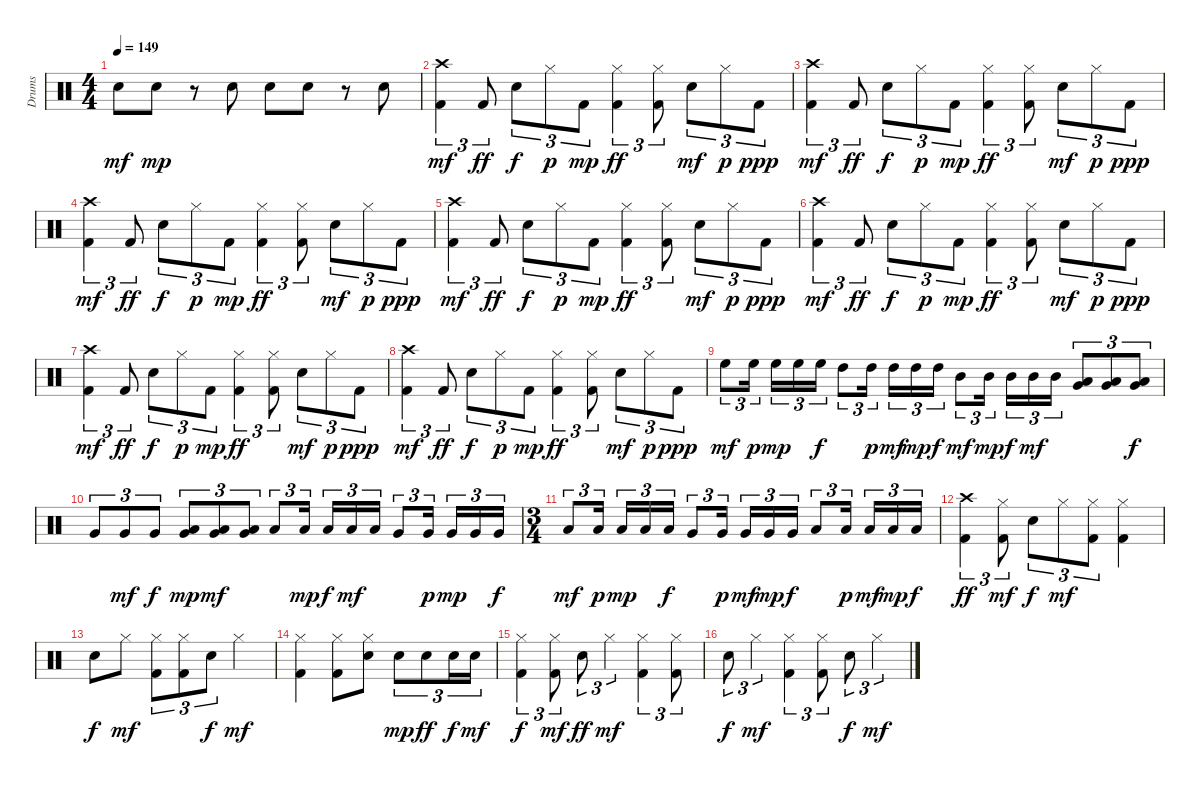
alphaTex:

\track ("Drums" "Drums") {instrument percussion}
\staff {score}
\articulation defaults
\ts (4 4)
\tempo 149
\clef neutral
\ks c "Electric Snare (hit)".8{dy mf} "Electric Snare (hit)".8{dy mp}
r.8 "Electric Snare (hit)".8 "Electric Snare (hit)".8 "Electric Snare (hit)".8 r.8 "Electric Snare (hit)".8 |
("Kick (hit) 2" "Crash high (hit)").4{tu (3 2) dy mf} "Kick (hit) 2".8{tu (3 2) dy ff} "Snare (hit) 2".8{tu (3 2) dy f} "Hi-Hat (closed)".8{tu (3 2) dy p} "Kick (hit) 2".8{tu (3 2) dy mp} ("Kick (hit) 2" "Hi-Hat (closed)").4{tu (3 2) dy ff} ("Kick (hit) 2" "Hi-Hat (closed)").8{tu (3 2)} "Snare (hit) 2".8{tu (3 2) dy mf} "Hi-Hat (closed)".8{tu (3 2) dy p} "Kick (hit) 2".8{tu (3 2) dy ppp} |
("Kick (hit) 2" "Crash high (hit)").4{tu (3 2) dy mf} "Kick (hit) 2".8{tu (3 2) dy ff} "Snare (hit) 2".8{tu (3 2) dy f} "Hi-Hat (closed)".8{tu (3 2) dy p} "Kick (hit) 2".8{tu (3 2) dy mp} ("Kick (hit) 2" "Hi-Hat (closed)").4{tu (3 2) dy ff} ("Kick (hit) 2" "Hi-Hat (closed)").8{tu (3 2)} "Snare (hit) 2".8{tu (3 2) dy mf} "Hi-Hat (closed)".8{tu (3 2) dy p} "Kick (hit) 2".8{tu (3 2) dy ppp} |
("Kick (hit) 2" "Crash high (hit)").4{tu (3 2) dy mf} "Kick (hit) 2".8{tu (3 2) dy ff} "Snare (hit) 2".8{tu (3 2) dy f} "Hi-Hat (closed)".8{tu (3 2) dy p} "Kick (hit) 2".8{tu (3 2) dy mp} ("Kick (hit) 2" "Hi-Hat (closed)").4{tu (3 2) dy ff} ("Kick (hit) 2" "Hi-Hat (closed)").8{tu (3 2)} "Snare (hit) 2".8{tu (3 2) dy mf} "Hi-Hat (closed)".8{tu (3 2) dy p} "Kick (hit) 2".8{tu (3 2) dy ppp} |
("Kick (hit) 2" "Crash high (hit)").4{tu (3 2) dy mf} "Kick (hit) 2".8{tu (3 2) dy ff} "Snare (hit) 2".8{tu (3 2) dy f} "Hi-Hat (closed)".8{tu (3 2) dy p} "Kick (hit) 2".8{tu (3 2) dy mp} ("Kick (hit) 2" "Hi-Hat (closed)").4{tu (3 2) dy ff} ("Kick (hit) 2" "Hi-Hat (closed)").8{tu (3 2)} "Snare (hit) 2".8{tu (3 2) dy mf} "Hi-Hat (closed)".8{tu (3 2) dy p} "Kick (hit) 2".8{tu (3 2) dy ppp} |
("Kick (hit) 2" "Crash high (hit)").4{tu (3 2) dy mf} "Kick (hit) 2".8{tu (3 2) dy ff} "Snare (hit) 2".8{tu (3 2) dy f} "Hi-Hat (closed)".8{tu (3 2) dy p} "Kick (hit) 2".8{tu (3 2) dy mp} ("Kick (hit) 2" "Hi-Hat (closed)").4{tu (3 2) dy ff} ("Kick (hit) 2" "Hi-Hat (closed)").8{tu (3 2)} "Snare (hit) 2".8{tu (3 2) dy mf} "Hi-Hat (closed)".8{tu (3 2) dy p} "Kick (hit) 2".8{tu (3 2) dy ppp} |
("Kick (hit) 2" "Crash high (hit)").4{tu (3 2) dy mf} "Kick (hit) 2".8{tu (3 2) dy ff} "Snare (hit) 2".8{tu (3 2) dy f} "Hi-Hat (closed)".8{tu (3 2) dy p} "Kick (hit) 2".8{tu (3 2) dy mp} ("Kick (hit) 2" "Hi-Hat (closed)").4{tu (3 2) dy ff} ("Kick (hit) 2" "Hi-Hat (closed)").8{tu (3 2)} "Snare (hit) 2".8{tu (3 2) dy mf} "Hi-Hat (closed)".8{tu (3 2) dy p} "Kick (hit) 2".8{tu (3 2) dy ppp} |
("Kick (hit) 2" "Crash high (hit)").4{tu (3 2) dy mf} "Kick (hit) 2".8{tu (3 2) dy ff} "Snare (hit) 2".8{tu (3 2) dy f} "Hi-Hat (closed)".8{tu (3 2) dy p} "Kick (hit) 2".8{tu (3 2) dy mp} ("Kick (hit) 2" "Hi-Hat (closed)").4{tu (3 2) dy ff} ("Kick (hit) 2" "Hi-Hat (closed)").8{tu (3 2)} "Snare (hit) 2".8{tu (3 2) dy mf} "Hi-Hat (closed)".8{tu (3 2) dy p} "Kick (hit) 2".8{tu (3 2) dy ppp} |
"High Floor Tom (hit)".8{tu (3 2) dy mf} "High Floor Tom (hit)".16{tu (3 2) dy p} "High Floor Tom (hit)".16{tu (3 2) dy mp} "High Floor Tom (hit)".16{tu (3 2)} "High Floor Tom (hit)".16{tu (3 2) dy f} "High Tom (hit)".8{tu (3 2)} "High Tom (hit)".16{tu (3 2) dy p} "High Tom (hit)".16{tu (3 2) dy mf} "High Tom (hit)".16{tu (3 2) dy mp} "High Tom (hit)".16{tu (3 2) dy f} "Mid Tom (hit)".8{tu (3 2) dy mf} "Mid Tom (hit)".16{tu (3 2) dy mp} "Mid Tom (hit)".16{tu (3 2) dy f} "Mid Tom (hit)".16{tu (3 2) dy mf} "Mid Tom (hit)".16{tu (3 2)} ("Low Floor Tom (hit)" "Very Low Tom (hit)").8{tu (3 2)} ("Low Floor Tom (hit)" "Very Low Tom (hit)").8{tu (3 2)} ("Low Floor Tom (hit)" "Very Low Tom (hit)").8{tu (3 2) dy f} |
"Very Low Tom (hit)".8{tu (3 2)} "Very Low Tom (hit)".8{tu (3 2) dy mf} "Very Low Tom (hit)".8{tu (3 2) dy f} ("Very Low Tom (hit)" "Low Tom (hit)").8{tu (3 2) dy mp} ("Very Low Tom (hit)" "Low Tom (hit)").8{tu (3 2) dy mf} ("Very Low Tom (hit)" "Low Tom (hit)").8{tu (3 2)} "Low Tom (hit)".8{tu (3 2)} "Low Tom (hit)".16{tu (3 2) dy mp} "Low Tom (hit)".16{tu (3 2) dy f} "Low Tom (hit)".16{tu (3 2) dy mf} "Low Tom (hit)".16{tu (3 2)} "Very Low Tom (hit)".8{tu (3 2)} "Very Low Tom (hit)".16{tu (3 2) dy p} "Very Low Tom (hit)".16{tu (3 2) dy mp} "Very Low Tom (hit)".16{tu (3 2)} "Very Low Tom (hit)".16{tu (3 2) dy f} |
\ts (3 4)
"Low Floor Tom (hit)".8{tu (3 2) dy mf} "Low Floor Tom (hit)".16{tu (3 2) dy p} "Low Floor Tom (hit)".16{tu (3 2) dy mp} "Low Floor Tom (hit)".16{tu (3 2)} "Low Floor Tom (hit)".16{tu (3 2) dy f} "Very Low Tom (hit)".8{tu (3 2)} "Very Low Tom (hit)".16{tu (3 2) dy p} "Very Low Tom (hit)".16{tu (3 2) dy mf} "Very Low Tom (hit)".16{tu (3 2) dy mp} "Very Low Tom (hit)".16{tu (3 2) dy f} "Low Tom (hit)".8{tu (3 2)} "Low Tom (hit)".16{tu (3 2) dy p} "Low Tom (hit)".16{tu (3 2) dy mf} "Low Tom (hit)".16{tu (3 2) dy mp} "Low Tom (hit)".16{tu (3 2) dy f} |
("Kick (hit) 2" "Crash high (hit)").4{tu (3 2) dy ff} ("Kick (hit) 2" "Hi-Hat (closed)").8{tu (3 2) dy mf} "Snare (hit) 2".8{tu (3 2) dy f} "Hi-Hat (closed)".8{tu (3 2) dy mf} ("Kick (hit) 2" "Hi-Hat (closed)").8{tu (3 2)} ("Kick (hit) 2" "Hi-Hat (closed)").4 |
"Snare (hit) 2".8{dy f} "Hi-Hat (closed)".8{dy mf} ("Kick (hit) 2" "Hi-Hat (closed)").8{tu (3 2)} ("Kick (hit) 2" "Hi-Hat (closed)").8{tu (3 2)} "Snare (hit) 2".8{tu (3 2) dy f} "Hi-Hat (closed)".4{dy mf} |
("Kick (hit) 2" "Hi-Hat (closed)").4 ("Kick (hit) 2" "Hi-Hat (closed)").8 ("Snare (hit) 2" "Hi-Hat (closed)").8 "Snare (hit) 2".8{tu (3 2) dy mp} "Snare (hit) 2".8{tu (3 2) dy ff} "Snare (hit) 2".16{tu (3 2) dy f} "Snare (hit) 2".16{tu (3 2) dy mf} |
("Kick (hit) 2" "Hi-Hat (closed)").4{tu (3 2) dy f} ("Kick (hit) 2" "Hi-Hat (closed)").8{tu (3 2) dy mf} "Snare (hit) 2".8{tu (3 2) dy ff} "Hi-Hat (closed)".4{tu (3 2) dy mf} ("Kick (hit) 2" "Hi-Hat (closed)").4{tu (3 2)} ("Kick (hit) 2" "Hi-Hat (closed)").8{tu (3 2)} |
"Snare (hit) 2".8{tu (3 2) dy f} "Hi-Hat (closed)".4{tu (3 2) dy mf} ("Kick (hit) 2" "Hi-Hat (closed)").4{tu (3 2)} ("Kick (hit) 2" "Hi-Hat (closed)").8{tu (3 2)} "Snare (hit) 2".8{tu (3 2) dy f} "Hi-Hat (closed)".4{tu (3 2) dy mf}
